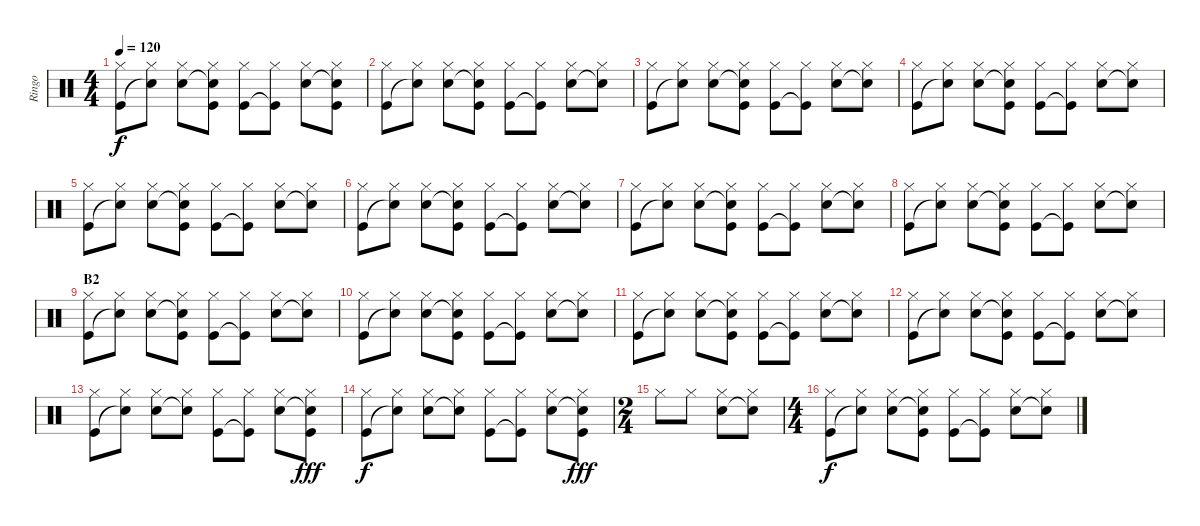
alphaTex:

\track ("Ringo" "Ringo") {instrument percussion}
\staff {score}
\articulation defaults
\ts (4 4)
\tempo 120
\clef neutral
\ks c
("Hi-Hat (closed)" "Kick (hit)").8{dy f} ("Hi-Hat (closed)" "Snare (hit)"{t}).8 ("Hi-Hat (closed)" "Snare (hit) 2").8 ("Hi-Hat (closed)" "Snare (hit)"{t} "Kick (hit)").8 ("Hi-Hat (closed)" "Kick (hit)").8 ("Hi-Hat (closed)" "Kick (hit)"{t}).8 ("Hi-Hat (closed)" "Snare (hit) 2").8 ("Hi-Hat (closed)" "Snare (hit)"{t} "Kick (hit)").8 |
("Hi-Hat (closed)" "Kick (hit)").8 ("Hi-Hat (closed)" "Snare (hit)"{t}).8 ("Hi-Hat (closed)" "Snare (hit) 2").8 ("Hi-Hat (closed)" "Snare (hit)"{t} "Kick (hit)").8 ("Hi-Hat (closed)" "Kick (hit)").8 ("Hi-Hat (closed)" "Kick (hit)"{t}).8 ("Hi-Hat (closed)" "Snare (hit) 2").8 ("Hi-Hat (closed)" "Snare (hit)"{t}).8 |
("Hi-Hat (closed)" "Kick (hit)").8 ("Hi-Hat (closed)" "Snare (hit)"{t}).8 ("Hi-Hat (closed)" "Snare (hit) 2").8 ("Hi-Hat (closed)" "Snare (hit)"{t} "Kick (hit)").8 ("Hi-Hat (closed)" "Kick (hit)").8 ("Hi-Hat (closed)" "Kick (hit)"{t}).8 ("Hi-Hat (closed)" "Snare (hit) 2").8 ("Hi-Hat (closed)" "Snare (hit)"{t}).8 |
("Hi-Hat (closed)" "Kick (hit)").8 ("Hi-Hat (closed)" "Snare (hit)"{t}).8 ("Hi-Hat (closed)" "Snare (hit) 2").8 ("Hi-Hat (closed)" "Snare (hit)"{t} "Kick (hit)").8 ("Hi-Hat (closed)" "Kick (hit)").8 ("Hi-Hat (closed)" "Kick (hit)"{t}).8 ("Hi-Hat (closed)" "Snare (hit) 2").8 ("Hi-Hat (closed)" "Snare (hit)"{t}).8 |
("Hi-Hat (closed)" "Kick (hit)").8 ("Hi-Hat (closed)" "Snare (hit)"{t}).8 ("Hi-Hat (closed)" "Snare (hit) 2").8 ("Hi-Hat (closed)" "Snare (hit)"{t} "Kick (hit)").8 ("Hi-Hat (closed)" "Kick (hit)").8 ("Hi-Hat (closed)" "Kick (hit)"{t}).8 ("Hi-Hat (closed)" "Snare (hit) 2").8 ("Hi-Hat (closed)" "Snare (hit)"{t}).8 |
("Hi-Hat (closed)" "Kick (hit)").8 ("Hi-Hat (closed)" "Snare (hit)"{t}).8 ("Hi-Hat (closed)" "Snare (hit) 2").8 ("Hi-Hat (closed)" "Snare (hit)"{t} "Kick (hit)").8 ("Hi-Hat (closed)" "Kick (hit)").8 ("Hi-Hat (closed)" "Kick (hit)"{t}).8 ("Hi-Hat (closed)" "Snare (hit) 2").8 ("Hi-Hat (closed)" "Snare (hit)"{t}).8 |
("Hi-Hat (closed)" "Kick (hit)").8 ("Hi-Hat (closed)" "Snare (hit)"{t}).8 ("Hi-Hat (closed)" "Snare (hit) 2").8 ("Hi-Hat (closed)" "Snare (hit)"{t} "Kick (hit)").8 ("Hi-Hat (closed)" "Kick (hit)").8 ("Hi-Hat (closed)" "Kick (hit)"{t}).8 ("Hi-Hat (closed)" "Snare (hit) 2").8 ("Hi-Hat (closed)" "Snare (hit)"{t}).8 |
("Hi-Hat (closed)" "Kick (hit)").8 ("Hi-Hat (closed)" "Snare (hit)"{t}).8 ("Hi-Hat (closed)" "Snare (hit) 2").8 ("Hi-Hat (closed)" "Snare (hit)"{t} "Kick (hit)").8 ("Hi-Hat (closed)" "Kick (hit)").8 ("Hi-Hat (closed)" "Kick (hit)"{t}).8 ("Hi-Hat (closed)" "Snare (hit) 2").8 ("Hi-Hat (closed)" "Snare (hit)"{t}).8 |
\section ("" "B2")
("Hi-Hat (closed)" "Kick (hit)").8 ("Hi-Hat (closed)" "Snare (hit)"{t}).8 ("Hi-Hat (closed)" "Snare (hit) 2").8 ("Hi-Hat (closed)" "Snare (hit)"{t} "Kick (hit)").8 ("Hi-Hat (closed)" "Kick (hit)").8 ("Hi-Hat (closed)" "Kick (hit)"{t}).8 ("Hi-Hat (closed)" "Snare (hit) 2").8 ("Hi-Hat (closed)" "Snare (hit)"{t}).8 |
("Hi-Hat (closed)" "Kick (hit)").8 ("Hi-Hat (closed)" "Snare (hit)"{t}).8 ("Hi-Hat (closed)" "Snare (hit) 2").8 ("Hi-Hat (closed)" "Snare (hit)"{t} "Kick (hit)").8 ("Hi-Hat (closed)" "Kick (hit)").8 ("Hi-Hat (closed)" "Kick (hit)"{t}).8 ("Hi-Hat (closed)" "Snare (hit) 2").8 ("Hi-Hat (closed)" "Snare (hit)"{t}).8 |
("Hi-Hat (closed)" "Kick (hit)").8 ("Hi-Hat (closed)" "Snare (hit)"{t}).8 ("Hi-Hat (closed)" "Snare (hit) 2").8 ("Hi-Hat (closed)" "Snare (hit)"{t} "Kick (hit)").8 ("Hi-Hat (closed)" "Kick (hit)").8 ("Hi-Hat (closed)" "Kick (hit)"{t}).8 ("Hi-Hat (closed)" "Snare (hit) 2").8 ("Hi-Hat (closed)" "Snare (hit)"{t}).8 |
("Hi-Hat (closed)" "Kick (hit)").8 ("Hi-Hat (closed)" "Snare (hit)"{t}).8 ("Hi-Hat (closed)" "Snare (hit) 2").8 ("Hi-Hat (closed)" "Snare (hit)"{t} "Kick (hit)").8 ("Hi-Hat (closed)" "Kick (hit)").8 ("Hi-Hat (closed)" "Kick (hit)"{t}).8 ("Hi-Hat (closed)" "Snare (hit) 2").8 ("Hi-Hat (closed)" "Snare (hit)"{t}).8 |
("Hi-Hat (closed)" "Kick (hit)").8 ("Hi-Hat (closed)" "Snare (hit)"{t}).8 ("Hi-Hat (closed)" "Snare (hit) 2").8 ("Hi-Hat (closed)" "Snare (hit)"{t}).8 ("Hi-Hat (closed)" "Kick (hit)").8 ("Hi-Hat (closed)" "Kick (hit)"{t}).8 ("Hi-Hat (closed)" "Snare (hit) 2").8 ("Hi-Hat (closed)" "Snare (hit)"{t} "Kick (hit)").8{dy fff} |
("Hi-Hat (closed)" "Kick (hit)").8{dy f} ("Hi-Hat (closed)" "Snare (hit)"{t}).8 ("Hi-Hat (closed)" "Snare (hit) 2").8 ("Hi-Hat (closed)" "Snare (hit)"{t}).8 ("Hi-Hat (closed)" "Kick (hit)").8 ("Hi-Hat (closed)" "Kick (hit)"{t}).8 ("Hi-Hat (closed)" "Snare (hit) 2").8 ("Hi-Hat (closed)" "Snare (hit)"{t} "Kick (hit)").8{dy fff} |
\ts (2 4)
"Hi-Hat (closed)".8 "Hi-Hat (closed)".8 ("Hi-Hat (closed)" "Snare (hit) 2").8 ("Hi-Hat (closed)" "Snare (hit)"{t}).8 |
\ts (4 4)
("Hi-Hat (closed)" "Kick (hit)").8{dy f} ("Hi-Hat (closed)" "Snare (hit)"{t}).8 ("Hi-Hat (closed)" "Snare (hit) 2").8 ("Hi-Hat (closed)" "Snare (hit)"{t} "Kick (hit)").8 ("Hi-Hat (closed)" "Kick (hit)").8 ("Hi-Hat (closed)" "Kick (hit)"{t}).8 ("Hi-Hat (closed)" "Snare (hit) 2").8 ("Hi-Hat (closed)" "Snare (hit)"{t}).8
